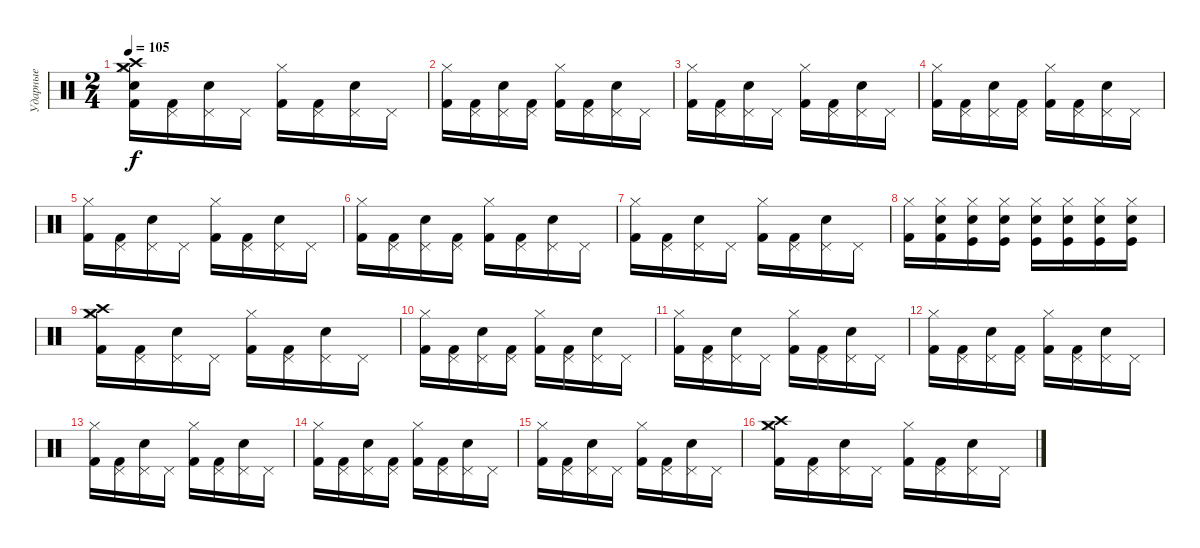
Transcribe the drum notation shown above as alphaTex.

\track ("Ударные" "Ударные") {instrument percussion}
\staff {score}
\articulation defaults
\ts (2 4)
\tempo 105
\clef neutral
\ks c
("Hi-Hat (closed)" "Crash medium (hit)" "Crash high (hit)" "Electric Snare (hit)" "Kick (hit) 2").16{dy f} ("Pedal Hi-Hat (hit)" "Kick (hit) 2").16 ("Pedal Hi-Hat (hit)" "Snare (hit) 2").16 "Pedal Hi-Hat (hit)".16 ("Hi-Hat (closed)" "Kick (hit) 2").16 ("Pedal Hi-Hat (hit)" "Kick (hit) 2").16 ("Pedal Hi-Hat (hit)" "Snare (hit) 2").16 "Pedal Hi-Hat (hit)".16 |
("Hi-Hat (closed)" "Kick (hit) 2").16 ("Pedal Hi-Hat (hit)" "Kick (hit) 2").16 ("Pedal Hi-Hat (hit)" "Snare (hit) 2").16 ("Pedal Hi-Hat (hit)" "Kick (hit) 2").16 ("Hi-Hat (closed)" "Kick (hit) 2").16 ("Pedal Hi-Hat (hit)" "Kick (hit) 2").16 ("Pedal Hi-Hat (hit)" "Snare (hit) 2").16 "Pedal Hi-Hat (hit)".16 |
("Hi-Hat (closed)" "Kick (hit) 2").16 ("Pedal Hi-Hat (hit)" "Kick (hit) 2").16 ("Pedal Hi-Hat (hit)" "Snare (hit) 2").16 "Pedal Hi-Hat (hit)".16 ("Hi-Hat (closed)" "Kick (hit) 2").16 ("Pedal Hi-Hat (hit)" "Kick (hit) 2").16 ("Pedal Hi-Hat (hit)" "Snare (hit) 2").16 "Pedal Hi-Hat (hit)".16 |
("Hi-Hat (closed)" "Kick (hit) 2").16 ("Pedal Hi-Hat (hit)" "Kick (hit) 2").16 ("Pedal Hi-Hat (hit)" "Snare (hit) 2").16 ("Pedal Hi-Hat (hit)" "Kick (hit) 2").16 ("Hi-Hat (closed)" "Kick (hit) 2").16 ("Pedal Hi-Hat (hit)" "Kick (hit) 2").16 ("Pedal Hi-Hat (hit)" "Snare (hit) 2").16 "Pedal Hi-Hat (hit)".16 |
("Hi-Hat (closed)" "Kick (hit) 2").16 ("Pedal Hi-Hat (hit)" "Kick (hit) 2").16 ("Pedal Hi-Hat (hit)" "Snare (hit) 2").16 "Pedal Hi-Hat (hit)".16 ("Hi-Hat (closed)" "Kick (hit) 2").16 ("Pedal Hi-Hat (hit)" "Kick (hit) 2").16 ("Pedal Hi-Hat (hit)" "Snare (hit) 2").16 "Pedal Hi-Hat (hit)".16 |
("Hi-Hat (closed)" "Kick (hit) 2").16 ("Pedal Hi-Hat (hit)" "Kick (hit) 2").16 ("Pedal Hi-Hat (hit)" "Snare (hit) 2").16 ("Pedal Hi-Hat (hit)" "Kick (hit) 2").16 ("Hi-Hat (closed)" "Kick (hit) 2").16 ("Pedal Hi-Hat (hit)" "Kick (hit) 2").16 ("Pedal Hi-Hat (hit)" "Snare (hit) 2").16 "Pedal Hi-Hat (hit)".16 |
("Hi-Hat (closed)" "Kick (hit) 2").16 ("Pedal Hi-Hat (hit)" "Kick (hit) 2").16 ("Pedal Hi-Hat (hit)" "Snare (hit) 2").16 "Pedal Hi-Hat (hit)".16 ("Hi-Hat (closed)" "Kick (hit) 2").16 ("Pedal Hi-Hat (hit)" "Kick (hit) 2").16 ("Pedal Hi-Hat (hit)" "Snare (hit) 2").16 "Pedal Hi-Hat (hit)".16 |
("Hi-Hat (closed)" "Kick (hit) 2").16 ("Hi-Hat (closed)" "Snare (hit) 2" "Kick (hit) 2").16 ("Hi-Hat (closed)" "Snare (hit) 2" "Kick (hit)").16 ("Hi-Hat (closed)" "Snare (hit) 2" "Kick (hit)").16 ("Hi-Hat (closed)" "Snare (hit) 2" "Kick (hit)").16 ("Hi-Hat (closed)" "Snare (hit) 2" "Kick (hit)").16 ("Hi-Hat (closed)" "Snare (hit) 2" "Kick (hit)").16 ("Hi-Hat (closed)" "Snare (hit) 2" "Kick (hit)").16 |
("Hi-Hat (closed)" "Crash medium (hit)" "Crash high (hit)" "Kick (hit) 2").16 ("Pedal Hi-Hat (hit)" "Kick (hit) 2").16 ("Pedal Hi-Hat (hit)" "Snare (hit) 2").16 "Pedal Hi-Hat (hit)".16 ("Hi-Hat (closed)" "Kick (hit) 2").16 ("Pedal Hi-Hat (hit)" "Kick (hit) 2").16 ("Pedal Hi-Hat (hit)" "Snare (hit) 2").16 "Pedal Hi-Hat (hit)".16 |
("Hi-Hat (closed)" "Kick (hit) 2").16 ("Pedal Hi-Hat (hit)" "Kick (hit) 2").16 ("Pedal Hi-Hat (hit)" "Snare (hit) 2").16 ("Pedal Hi-Hat (hit)" "Kick (hit) 2").16 ("Hi-Hat (closed)" "Kick (hit) 2").16 ("Pedal Hi-Hat (hit)" "Kick (hit) 2").16 ("Pedal Hi-Hat (hit)" "Snare (hit) 2").16 "Pedal Hi-Hat (hit)".16 |
("Hi-Hat (closed)" "Kick (hit) 2").16 ("Pedal Hi-Hat (hit)" "Kick (hit) 2").16 ("Pedal Hi-Hat (hit)" "Snare (hit) 2").16 "Pedal Hi-Hat (hit)".16 ("Hi-Hat (closed)" "Kick (hit) 2").16 ("Pedal Hi-Hat (hit)" "Kick (hit) 2").16 ("Pedal Hi-Hat (hit)" "Snare (hit) 2").16 "Pedal Hi-Hat (hit)".16 |
("Hi-Hat (closed)" "Kick (hit) 2").16 ("Pedal Hi-Hat (hit)" "Kick (hit) 2").16 ("Pedal Hi-Hat (hit)" "Snare (hit) 2").16 ("Pedal Hi-Hat (hit)" "Kick (hit) 2").16 ("Hi-Hat (closed)" "Kick (hit) 2").16 ("Pedal Hi-Hat (hit)" "Kick (hit) 2").16 ("Pedal Hi-Hat (hit)" "Snare (hit) 2").16 "Pedal Hi-Hat (hit)".16 |
("Hi-Hat (closed)" "Kick (hit) 2").16 ("Pedal Hi-Hat (hit)" "Kick (hit) 2").16 ("Pedal Hi-Hat (hit)" "Snare (hit) 2").16 "Pedal Hi-Hat (hit)".16 ("Hi-Hat (closed)" "Kick (hit) 2").16 ("Pedal Hi-Hat (hit)" "Kick (hit) 2").16 ("Pedal Hi-Hat (hit)" "Snare (hit) 2").16 "Pedal Hi-Hat (hit)".16 |
("Hi-Hat (closed)" "Kick (hit) 2").16 ("Pedal Hi-Hat (hit)" "Kick (hit) 2").16 ("Pedal Hi-Hat (hit)" "Snare (hit) 2").16 ("Pedal Hi-Hat (hit)" "Kick (hit) 2").16 ("Hi-Hat (closed)" "Kick (hit) 2").16 ("Pedal Hi-Hat (hit)" "Kick (hit) 2").16 ("Pedal Hi-Hat (hit)" "Snare (hit) 2").16 "Pedal Hi-Hat (hit)".16 |
("Hi-Hat (closed)" "Kick (hit) 2").16 ("Pedal Hi-Hat (hit)" "Kick (hit) 2").16 ("Pedal Hi-Hat (hit)" "Snare (hit) 2").16 "Pedal Hi-Hat (hit)".16 ("Hi-Hat (closed)" "Kick (hit) 2").16 ("Pedal Hi-Hat (hit)" "Kick (hit) 2").16 ("Pedal Hi-Hat (hit)" "Snare (hit) 2").16 "Pedal Hi-Hat (hit)".16 |
("Hi-Hat (closed)" "Crash medium (hit)" "Crash high (hit)" "Kick (hit) 2").16 ("Pedal Hi-Hat (hit)" "Kick (hit) 2").16 ("Pedal Hi-Hat (hit)" "Snare (hit) 2").16 "Pedal Hi-Hat (hit)".16 ("Hi-Hat (closed)" "Kick (hit) 2").16 ("Pedal Hi-Hat (hit)" "Kick (hit) 2").16 ("Pedal Hi-Hat (hit)" "Snare (hit) 2").16 "Pedal Hi-Hat (hit)".16
